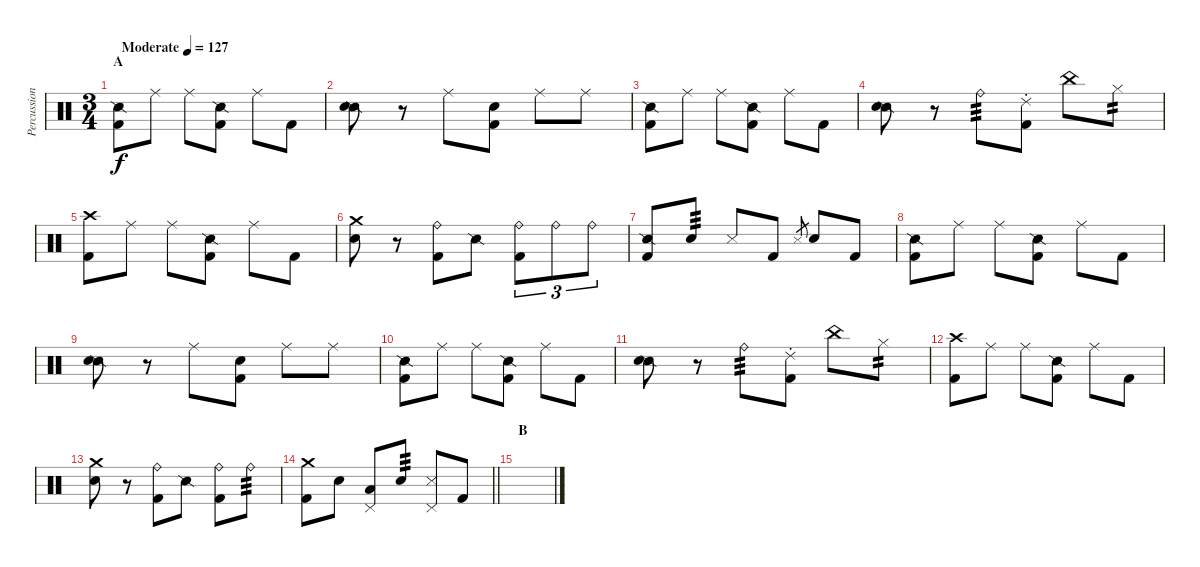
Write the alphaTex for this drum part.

\track ("Percussion" "Percussion") {instrument percussion}
\staff {score}
\articulation defaults
\ts (3 4)
\section ("" "A")
\tempo (127 "Moderate")
\clef neutral
\ks c
("Snare (side stick) 2" "Kick (hit) 2").8{dy f} "Ride (middle)".8 "Ride (middle)".8 ("Snare (side stick) 2" "Kick (hit) 2").8 "Ride (middle)".8 "Kick (hit) 2".8 |
("Snare (side stick) 2" "Snare (hit) 2").8 r.8 "Ride (middle)".8 ("Snare (hit)" "Kick (hit) 2").8 "Ride (middle)".8 "Ride (middle)".8 |
("Snare (side stick) 2" "Kick (hit) 2").8 "Ride (middle)".8 "Ride (middle)".8 ("Snare (side stick) 2" "Kick (hit) 2").8 "Ride (middle)".8 "Kick (hit) 2".8 |
("Snare (side stick) 2" "Snare (hit) 2").8 r.8 "Ride (bell)".8{tp 3} ("Ride (choke) 2" "Kick (hit) 2").8 "China (hit)".8 "Hi-Hat (closed)".8{tp 2} |
("Crash high (hit)" "Kick (hit) 2").8 "Ride (middle)".8 "Ride (middle)".8 ("Snare (side stick) 2" "Kick (hit) 2").8 "Ride (middle)".8 "Kick (hit) 2".8 |
("Crash medium (hit)" "Snare (hit) 2").8 r.8 ("Ride (bell)" "Kick (hit) 2").8 "Snare (side stick) 2".8 ("Ride (bell)" "Kick (hit) 2").8{tu (3 2)} "Ride (bell)".8{tu (3 2)} "Ride (bell)".8{tu (3 2)} |
("Snare (side stick) 2" "Kick (hit) 2").8 "Snare (hit) 2".8{tp 3} "Metronome (hit)".8 "Kick (hit) 2".8 "Metronome (hit)".8{gr} "Snare (hit) 2".8 "Kick (hit) 2".8 |
("Snare (side stick) 2" "Kick (hit) 2").8 "Ride (middle)".8 "Ride (middle)".8 ("Snare (side stick) 2" "Kick (hit) 2").8 "Ride (middle)".8 "Kick (hit) 2".8 |
("Snare (side stick) 2" "Snare (hit) 2").8 r.8 "Ride (middle)".8 ("Snare (hit)" "Kick (hit) 2").8 "Ride (middle)".8 "Ride (middle)".8 |
("Snare (side stick) 2" "Kick (hit) 2").8 "Ride (middle)".8 "Ride (middle)".8 ("Snare (side stick) 2" "Kick (hit) 2").8 "Ride (middle)".8 "Kick (hit) 2".8 |
("Snare (side stick) 2" "Snare (hit) 2").8 r.8 "Ride (bell)".8{tp 3} ("Ride (choke) 2" "Kick (hit) 2").8 "China (hit)".8 "Hi-Hat (closed)".8{tp 2} |
("Crash high (hit)" "Kick (hit) 2").8 "Ride (middle)".8 "Ride (middle)".8 ("Snare (side stick) 2" "Kick (hit) 2").8 "Ride (middle)".8 "Kick (hit) 2".8 |
("Crash medium (hit)" "Snare (hit) 2").8 r.8 ("Ride (bell)" "Kick (hit) 2").8 "Snare (side stick) 2".8 ("Ride (bell)" "Kick (hit) 2").8 "Ride (bell)".8{tp 3} |
\barLineRight lightlight
("Crash medium (hit)" "Kick (hit) 2").8 "Snare (hit) 2".8 ("Pedal Hi-Hat (hit)" "Low Tom (hit)").8 "Snare (hit) 2".8{tp 3} ("Pedal Hi-Hat (hit)" "Metronome (hit)").8 "Kick (hit) 2".8 |
\section ("" "B")
